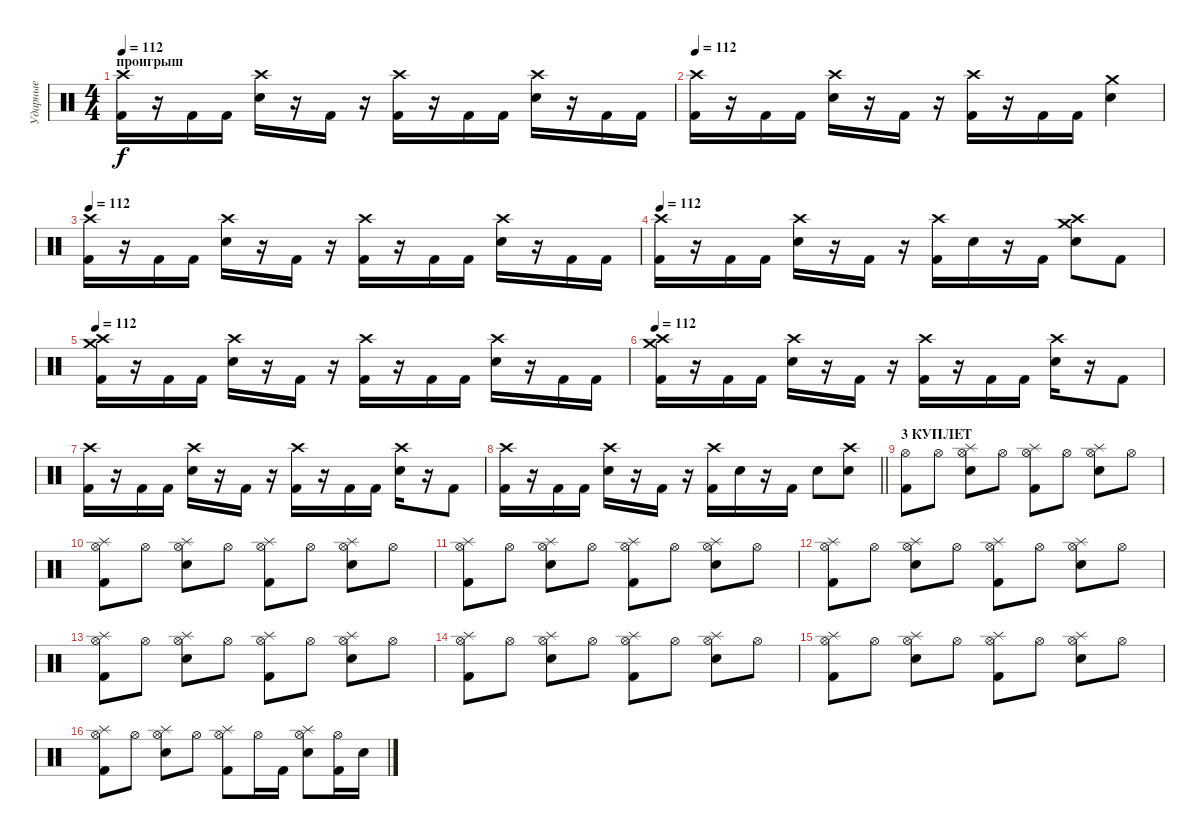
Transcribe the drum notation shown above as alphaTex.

\track ("Ударные" "Ударные") {instrument percussion}
\staff {score}
\articulation defaults
\ts (4 4)
\section ("" "проигрыш")
\tempo 112
\clef neutral
\ks c
("Crash high (hit)" "Kick (hit) 2").16{dy f} r.16 "Kick (hit) 2".16 "Kick (hit) 2".16 ("Crash high (hit)" "Snare (hit) 2").16 r.16 "Kick (hit) 2".16 r.16 ("Crash high (hit)" "Kick (hit) 2").16 r.16 "Kick (hit) 2".16 "Kick (hit) 2".16 ("Crash high (hit)" "Snare (hit) 2").16 r.16 "Kick (hit) 2".16 "Kick (hit) 2".16 |
\tempo 112
("Crash high (hit)" "Kick (hit) 2").16 r.16 "Kick (hit) 2".16 "Kick (hit) 2".16 ("Crash high (hit)" "Snare (hit) 2").16 r.16 "Kick (hit) 2".16 r.16 ("Crash high (hit)" "Kick (hit) 2").16 r.16 "Kick (hit) 2".16 "Kick (hit) 2".16 ("Crash medium (hit)" "Snare (hit) 2").4 |
\tempo 112
("Crash high (hit)" "Kick (hit) 2").16 r.16 "Kick (hit) 2".16 "Kick (hit) 2".16 ("Crash high (hit)" "Snare (hit) 2").16 r.16 "Kick (hit) 2".16 r.16 ("Crash high (hit)" "Kick (hit) 2").16 r.16 "Kick (hit) 2".16 "Kick (hit) 2".16 ("Crash high (hit)" "Snare (hit) 2").16 r.16 "Kick (hit) 2".16 "Kick (hit) 2".16 |
\tempo 112
("Crash high (hit)" "Kick (hit) 2").16 r.16 "Kick (hit) 2".16 "Kick (hit) 2".16 ("Crash high (hit)" "Snare (hit) 2").16 r.16 "Kick (hit) 2".16 r.16 ("Crash high (hit)" "Kick (hit) 2").16 "Snare (hit) 2".16 r.16 "Kick (hit) 2".16 ("Crash high (hit)" "Crash medium (hit)" "Snare (hit) 2").8 "Kick (hit) 2".8 |
\tempo 112
("Crash high (hit)" "Crash medium (hit)" "Kick (hit) 2").16 r.16 "Kick (hit) 2".16 "Kick (hit) 2".16 ("Crash high (hit)" "Snare (hit) 2").16 r.16 "Kick (hit) 2".16 r.16 ("Crash high (hit)" "Kick (hit) 2").16 r.16 "Kick (hit) 2".16 "Kick (hit) 2".16 ("Crash high (hit)" "Snare (hit) 2").16 r.16 "Kick (hit) 2".16 "Kick (hit) 2".16 |
\tempo 112
("Crash high (hit)" "Crash medium (hit)" "Kick (hit) 2").16 r.16 "Kick (hit) 2".16 "Kick (hit) 2".16 ("Crash high (hit)" "Snare (hit) 2").16 r.16 "Kick (hit) 2".16 r.16 ("Crash high (hit)" "Kick (hit) 2").16 r.16 "Kick (hit) 2".16 "Kick (hit) 2".16 ("Crash high (hit)" "Snare (hit) 2").16 r.16 "Kick (hit) 2".8 |
("Crash high (hit)" "Kick (hit) 2").16 r.16 "Kick (hit) 2".16 "Kick (hit) 2".16 ("Crash high (hit)" "Snare (hit) 2").16 r.16 "Kick (hit) 2".16 r.16 ("Crash high (hit)" "Kick (hit) 2").16 r.16 "Kick (hit) 2".16 "Kick (hit) 2".16 ("Crash high (hit)" "Snare (hit) 2").16 r.16 "Kick (hit) 2".8 |
\barLineRight lightlight
("Crash high (hit)" "Kick (hit) 2").16 r.16 "Kick (hit) 2".16 "Kick (hit) 2".16 ("Crash high (hit)" "Snare (hit) 2").16 r.16 "Kick (hit) 2".16 r.16 ("Crash high (hit)" "Kick (hit) 2").16 "Snare (hit) 2".16 r.16 "Kick (hit) 2".16 "Snare (hit) 2".8 ("Crash high (hit)" "Snare (hit) 2").8 |
\section ("" "3 КУПЛЕТ")
("Hi-Hat (open)" "Kick (hit) 2").8 "Hi-Hat (open)".8 ("Hi-Hat (open)" "Splash (hit)" "Snare (hit) 2").8 "Hi-Hat (open)".8 ("Hi-Hat (open)" "Splash (hit)" "Kick (hit) 2").8 "Hi-Hat (open)".8 ("Hi-Hat (open)" "Splash (hit)" "Snare (hit) 2").8 "Hi-Hat (open)".8 |
("Hi-Hat (open)" "Splash (hit)" "Kick (hit) 2").8 "Hi-Hat (open)".8 ("Hi-Hat (open)" "Splash (hit)" "Snare (hit) 2").8 "Hi-Hat (open)".8 ("Hi-Hat (open)" "Splash (hit)" "Kick (hit) 2").8 "Hi-Hat (open)".8 ("Hi-Hat (open)" "Splash (hit)" "Snare (hit) 2").8 "Hi-Hat (open)".8 |
("Hi-Hat (open)" "Splash (hit)" "Kick (hit) 2").8 "Hi-Hat (open)".8 ("Hi-Hat (open)" "Splash (hit)" "Snare (hit) 2").8 "Hi-Hat (open)".8 ("Hi-Hat (open)" "Splash (hit)" "Kick (hit) 2").8 "Hi-Hat (open)".8 ("Hi-Hat (open)" "Splash (hit)" "Snare (hit) 2").8 "Hi-Hat (open)".8 |
("Hi-Hat (open)" "Splash (hit)" "Kick (hit) 2").8 "Hi-Hat (open)".8 ("Hi-Hat (open)" "Splash (hit)" "Snare (hit) 2").8 "Hi-Hat (open)".8 ("Hi-Hat (open)" "Splash (hit)" "Kick (hit) 2").8 "Hi-Hat (open)".8 ("Hi-Hat (open)" "Splash (hit)" "Snare (hit) 2").8 "Hi-Hat (open)".8 |
("Hi-Hat (open)" "Splash (hit)" "Kick (hit) 2").8 "Hi-Hat (open)".8 ("Hi-Hat (open)" "Splash (hit)" "Snare (hit) 2").8 "Hi-Hat (open)".8 ("Hi-Hat (open)" "Splash (hit)" "Kick (hit) 2").8 "Hi-Hat (open)".8 ("Hi-Hat (open)" "Splash (hit)" "Snare (hit) 2").8 "Hi-Hat (open)".8 |
("Hi-Hat (open)" "Splash (hit)" "Kick (hit) 2").8 "Hi-Hat (open)".8 ("Hi-Hat (open)" "Splash (hit)" "Snare (hit) 2").8 "Hi-Hat (open)".8 ("Hi-Hat (open)" "Splash (hit)" "Kick (hit) 2").8 "Hi-Hat (open)".8 ("Hi-Hat (open)" "Splash (hit)" "Snare (hit) 2").8 "Hi-Hat (open)".8 |
("Hi-Hat (open)" "Splash (hit)" "Kick (hit) 2").8 "Hi-Hat (open)".8 ("Hi-Hat (open)" "Splash (hit)" "Snare (hit) 2").8 "Hi-Hat (open)".8 ("Hi-Hat (open)" "Splash (hit)" "Kick (hit) 2").8 "Hi-Hat (open)".8 ("Hi-Hat (open)" "Splash (hit)" "Snare (hit) 2").8 "Hi-Hat (open)".8 |
("Hi-Hat (open)" "Splash (hit)" "Kick (hit) 2").8 "Hi-Hat (open)".8 ("Hi-Hat (open)" "Splash (hit)" "Snare (hit) 2").8 "Hi-Hat (open)".8 ("Hi-Hat (open)" "Splash (hit)" "Kick (hit) 2").8 "Hi-Hat (open)".16 "Kick (hit) 2".16 ("Hi-Hat (open)" "Splash (hit)" "Snare (hit) 2").8 ("Hi-Hat (open)" "Kick (hit) 2").16 "Snare (hit) 2".16
